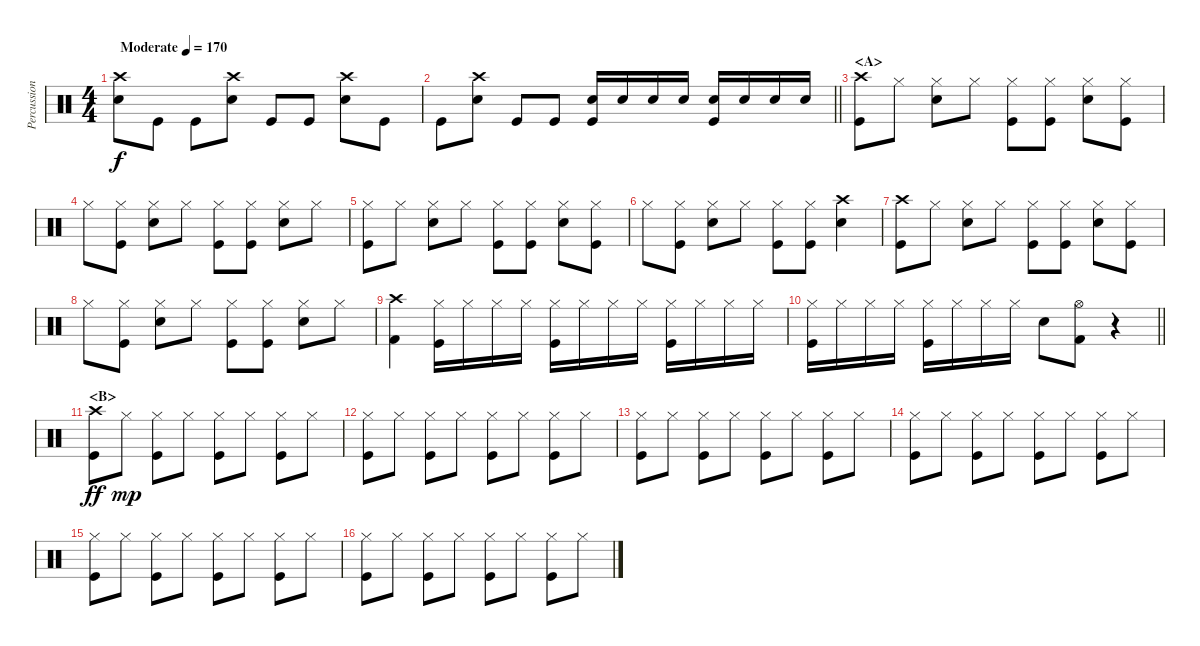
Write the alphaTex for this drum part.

\track ("Percussion" "Percussion") {instrument percussion}
\staff {score}
\articulation defaults
\ts (4 4)
\tempo (170 "Moderate")
\clef neutral
\ks c
("Crash high (hit)" "Snare (hit) 2").8{dy f} "Kick (hit)".8 "Kick (hit)".8 ("Crash high (hit)" "Snare (hit) 2").8 "Kick (hit)".8 "Kick (hit)".8 ("Crash high (hit)" "Snare (hit) 2").8 "Kick (hit)".8 |
\barLineRight lightlight "Kick (hit)".8
("Crash high (hit)" "Snare (hit) 2").8 "Kick (hit)".8 "Kick (hit)".8 ("Kick (hit)" "Snare (hit) 2").16 "Snare (hit) 2".16 "Snare (hit) 2".16 "Snare (hit) 2".16 ("Kick (hit)" "Snare (hit) 2").16 "Snare (hit) 2".16 "Snare (hit) 2".16 "Snare (hit) 2".16 |
\section ("" "<A>")
("Crash high (hit)" "Kick (hit)").8 "Hi-Hat (closed)".8 ("Hi-Hat (closed)" "Snare (hit) 2").8 "Hi-Hat (closed)".8 ("Hi-Hat (closed)" "Kick (hit)").8 ("Hi-Hat (closed)" "Kick (hit)").8 ("Hi-Hat (closed)" "Snare (hit) 2").8 ("Hi-Hat (closed)" "Kick (hit)").8 |
"Hi-Hat (closed)".8 ("Hi-Hat (closed)" "Kick (hit)").8 ("Hi-Hat (closed)" "Snare (hit) 2").8 "Hi-Hat (closed)".8 ("Hi-Hat (closed)" "Kick (hit)").8 ("Hi-Hat (closed)" "Kick (hit)").8 ("Hi-Hat (closed)" "Snare (hit) 2").8 "Hi-Hat (closed)".8 |
("Hi-Hat (closed)" "Kick (hit)").8 "Hi-Hat (closed)".8 ("Hi-Hat (closed)" "Snare (hit) 2").8 "Hi-Hat (closed)".8 ("Hi-Hat (closed)" "Kick (hit)").8 ("Hi-Hat (closed)" "Kick (hit)").8 ("Hi-Hat (closed)" "Snare (hit) 2").8 ("Hi-Hat (closed)" "Kick (hit)").8 |
"Hi-Hat (closed)".8 ("Hi-Hat (closed)" "Kick (hit)").8 ("Hi-Hat (closed)" "Snare (hit) 2").8 "Hi-Hat (closed)".8 ("Hi-Hat (closed)" "Kick (hit)").8 ("Hi-Hat (closed)" "Kick (hit)").8 ("Crash high (hit)" "Snare (hit) 2").4 |
("Crash high (hit)" "Kick (hit)").8 "Hi-Hat (closed)".8 ("Hi-Hat (closed)" "Snare (hit) 2").8 "Hi-Hat (closed)".8 ("Hi-Hat (closed)" "Kick (hit)").8 ("Hi-Hat (closed)" "Kick (hit)").8 ("Hi-Hat (closed)" "Snare (hit) 2").8 ("Hi-Hat (closed)" "Kick (hit)").8 |
"Hi-Hat (closed)".8 ("Hi-Hat (closed)" "Kick (hit)").8 ("Hi-Hat (closed)" "Snare (hit) 2").8 "Hi-Hat (closed)".8 ("Hi-Hat (closed)" "Kick (hit)").8 ("Hi-Hat (closed)" "Kick (hit)").8 ("Hi-Hat (closed)" "Snare (hit) 2").8 "Hi-Hat (closed)".8 |
("Crash high (hit)" "Kick (hit) 2").4 ("Kick (hit)" "Hi-Hat (closed)").16 "Hi-Hat (closed)".16 "Hi-Hat (closed)".16 "Hi-Hat (closed)".16 ("Kick (hit)" "Hi-Hat (closed)").16 "Hi-Hat (closed)".16 "Hi-Hat (closed)".16 "Hi-Hat (closed)".16 ("Kick (hit)" "Hi-Hat (closed)").16 "Hi-Hat (closed)".16 "Hi-Hat (closed)".16 "Hi-Hat (closed)".16 |
\barLineRight lightlight
("Kick (hit)" "Hi-Hat (closed)").16 "Hi-Hat (closed)".16 "Hi-Hat (closed)".16 "Hi-Hat (closed)".16 ("Kick (hit)" "Hi-Hat (closed)").16 "Hi-Hat (closed)".16 "Hi-Hat (closed)".16 "Hi-Hat (closed)".16 "Snare (hit) 2".8 ("Hi-Hat (open)" "Kick (hit) 2").8 r.4 |
\section ("" "<B>")
("Kick (hit)" "Crash high (hit)").8{dy ff} "Hi-Hat (closed)".8{dy mp} ("Kick (hit)" "Hi-Hat (closed)").8 "Hi-Hat (closed)".8 ("Kick (hit)" "Hi-Hat (closed)").8 "Hi-Hat (closed)".8 ("Kick (hit)" "Hi-Hat (closed)").8 "Hi-Hat (closed)".8 |
("Kick (hit)" "Hi-Hat (closed)").8 "Hi-Hat (closed)".8 ("Kick (hit)" "Hi-Hat (closed)").8 "Hi-Hat (closed)".8 ("Kick (hit)" "Hi-Hat (closed)").8 "Hi-Hat (closed)".8 ("Kick (hit)" "Hi-Hat (closed)").8 "Hi-Hat (closed)".8 |
("Kick (hit)" "Hi-Hat (closed)").8 "Hi-Hat (closed)".8 ("Kick (hit)" "Hi-Hat (closed)").8 "Hi-Hat (closed)".8 ("Kick (hit)" "Hi-Hat (closed)").8 "Hi-Hat (closed)".8 ("Kick (hit)" "Hi-Hat (closed)").8 "Hi-Hat (closed)".8 |
("Kick (hit)" "Hi-Hat (closed)").8 "Hi-Hat (closed)".8 ("Kick (hit)" "Hi-Hat (closed)").8 "Hi-Hat (closed)".8 ("Kick (hit)" "Hi-Hat (closed)").8 "Hi-Hat (closed)".8 ("Kick (hit)" "Hi-Hat (closed)").8 "Hi-Hat (closed)".8 |
("Kick (hit)" "Hi-Hat (closed)").8 "Hi-Hat (closed)".8 ("Kick (hit)" "Hi-Hat (closed)").8 "Hi-Hat (closed)".8 ("Kick (hit)" "Hi-Hat (closed)").8 "Hi-Hat (closed)".8 ("Kick (hit)" "Hi-Hat (closed)").8 "Hi-Hat (closed)".8 |
("Kick (hit)" "Hi-Hat (closed)").8 "Hi-Hat (closed)".8 ("Kick (hit)" "Hi-Hat (closed)").8 "Hi-Hat (closed)".8 ("Kick (hit)" "Hi-Hat (closed)").8 "Hi-Hat (closed)".8 ("Kick (hit)" "Hi-Hat (closed)").8 "Hi-Hat (closed)".8
